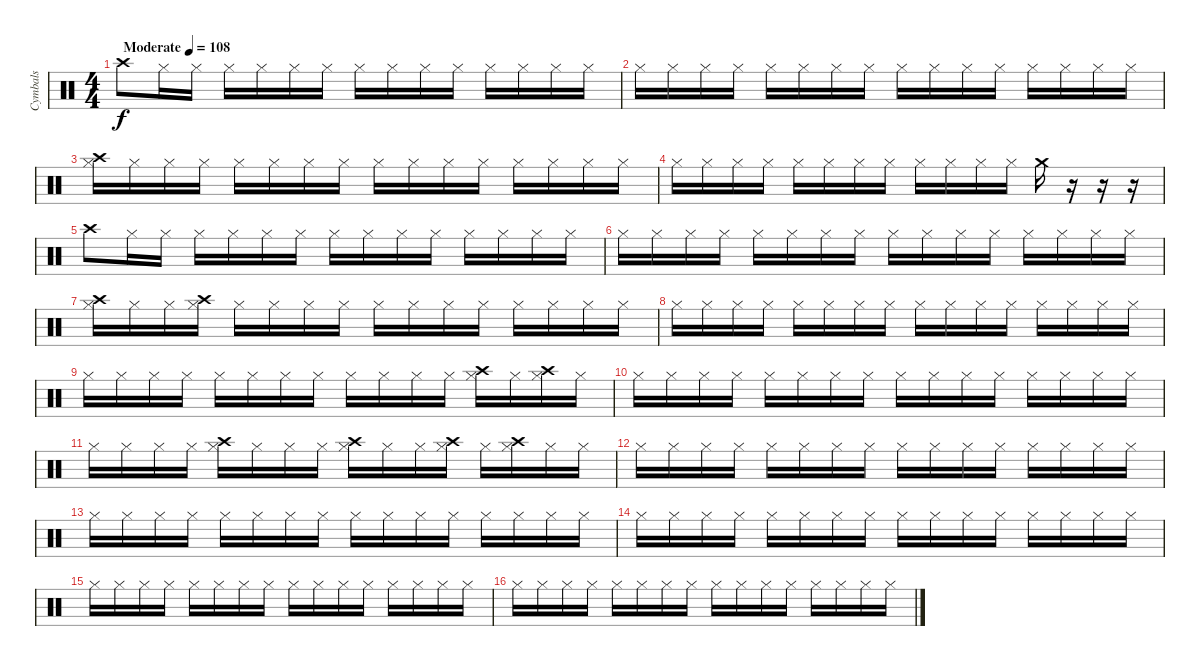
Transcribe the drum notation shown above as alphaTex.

\track ("Cymbals" "Cymbals") {instrument percussion}
\staff {score}
\articulation defaults
\ts (4 4)
\tempo (108 "Moderate")
\clef neutral
\ks c "Crash high (hit)".8{dy f} "Hi-Hat (closed)".16 "Hi-Hat (closed)".16 "Hi-Hat (closed)".16 "Hi-Hat (closed)".16 "Hi-Hat (closed)".16 "Hi-Hat (closed)".16 "Hi-Hat (closed)".16 "Hi-Hat (closed)".16 "Hi-Hat (closed)".16 "Hi-Hat (closed)".16 "Hi-Hat (closed)".16 "Hi-Hat (closed)".16 "Hi-Hat (closed)".16 "Hi-Hat (closed)".16
|
"Hi-Hat (closed)".16 "Hi-Hat (closed)".16 "Hi-Hat (closed)".16 "Hi-Hat (closed)".16 "Hi-Hat (closed)".16 "Hi-Hat (closed)".16 "Hi-Hat (closed)".16 "Hi-Hat (closed)".16 "Hi-Hat (closed)".16 "Hi-Hat (closed)".16 "Hi-Hat (closed)".16 "Hi-Hat (closed)".16 "Hi-Hat (closed)".16 "Hi-Hat (closed)".16 "Hi-Hat (closed)".16 "Hi-Hat (closed)".16 |
("Crash high (hit)" "Hi-Hat (closed)").16 "Hi-Hat (closed)".16 "Hi-Hat (closed)".16 "Hi-Hat (closed)".16 "Hi-Hat (closed)".16 "Hi-Hat (closed)".16 "Hi-Hat (closed)".16 "Hi-Hat (closed)".16 "Hi-Hat (closed)".16 "Hi-Hat (closed)".16 "Hi-Hat (closed)".16 "Hi-Hat (closed)".16 "Hi-Hat (closed)".16 "Hi-Hat (closed)".16 "Hi-Hat (closed)".16 "Hi-Hat (closed)".16 |
"Hi-Hat (closed)".16 "Hi-Hat (closed)".16 "Hi-Hat (closed)".16 "Hi-Hat (closed)".16 "Hi-Hat (closed)".16 "Hi-Hat (closed)".16 "Hi-Hat (closed)".16 "Hi-Hat (closed)".16 "Hi-Hat (closed)".16 "Hi-Hat (closed)".16 "Hi-Hat (closed)".16 "Hi-Hat (closed)".16 "Crash medium (hit)".16 r.16 r.16 r.16 |
"Crash high (hit)".8 "Hi-Hat (closed)".16 "Hi-Hat (closed)".16 "Hi-Hat (closed)".16 "Hi-Hat (closed)".16 "Hi-Hat (closed)".16 "Hi-Hat (closed)".16 "Hi-Hat (closed)".16 "Hi-Hat (closed)".16 "Hi-Hat (closed)".16 "Hi-Hat (closed)".16 "Hi-Hat (closed)".16 "Hi-Hat (closed)".16 "Hi-Hat (closed)".16 "Hi-Hat (closed)".16 |
"Hi-Hat (closed)".16 "Hi-Hat (closed)".16 "Hi-Hat (closed)".16 "Hi-Hat (closed)".16 "Hi-Hat (closed)".16 "Hi-Hat (closed)".16 "Hi-Hat (closed)".16 "Hi-Hat (closed)".16 "Hi-Hat (closed)".16 "Hi-Hat (closed)".16 "Hi-Hat (closed)".16 "Hi-Hat (closed)".16 "Hi-Hat (closed)".16 "Hi-Hat (closed)".16 "Hi-Hat (closed)".16 "Hi-Hat (closed)".16 |
("Crash high (hit)" "Hi-Hat (closed)").16 "Hi-Hat (closed)".16 "Hi-Hat (closed)".16 ("Crash high (hit)" "Hi-Hat (closed)").16 "Hi-Hat (closed)".16 "Hi-Hat (closed)".16 "Hi-Hat (closed)".16 "Hi-Hat (closed)".16 "Hi-Hat (closed)".16 "Hi-Hat (closed)".16 "Hi-Hat (closed)".16 "Hi-Hat (closed)".16 "Hi-Hat (closed)".16 "Hi-Hat (closed)".16 "Hi-Hat (closed)".16 "Hi-Hat (closed)".16 |
"Hi-Hat (closed)".16 "Hi-Hat (closed)".16 "Hi-Hat (closed)".16 "Hi-Hat (closed)".16 "Hi-Hat (closed)".16 "Hi-Hat (closed)".16 "Hi-Hat (closed)".16 "Hi-Hat (closed)".16 "Hi-Hat (closed)".16 "Hi-Hat (closed)".16 "Hi-Hat (closed)".16 "Hi-Hat (closed)".16 "Hi-Hat (closed)".16 "Hi-Hat (closed)".16 "Hi-Hat (closed)".16 "Hi-Hat (closed)".16 |
"Hi-Hat (closed)".16 "Hi-Hat (closed)".16 "Hi-Hat (closed)".16 "Hi-Hat (closed)".16 "Hi-Hat (closed)".16 "Hi-Hat (closed)".16 "Hi-Hat (closed)".16 "Hi-Hat (closed)".16 "Hi-Hat (closed)".16 "Hi-Hat (closed)".16 "Hi-Hat (closed)".16 "Hi-Hat (closed)".16 ("Crash high (hit)" "Hi-Hat (closed)").16 "Hi-Hat (closed)".16 ("Crash high (hit)" "Hi-Hat (closed)").16 "Hi-Hat (closed)".16 |
"Hi-Hat (closed)".16 "Hi-Hat (closed)".16 "Hi-Hat (closed)".16 "Hi-Hat (closed)".16 "Hi-Hat (closed)".16 "Hi-Hat (closed)".16 "Hi-Hat (closed)".16 "Hi-Hat (closed)".16 "Hi-Hat (closed)".16 "Hi-Hat (closed)".16 "Hi-Hat (closed)".16 "Hi-Hat (closed)".16 "Hi-Hat (closed)".16 "Hi-Hat (closed)".16 "Hi-Hat (closed)".16 "Hi-Hat (closed)".16 |
"Hi-Hat (closed)".16 "Hi-Hat (closed)".16 "Hi-Hat (closed)".16 "Hi-Hat (closed)".16 ("Crash high (hit)" "Hi-Hat (closed)").16 "Hi-Hat (closed)".16 "Hi-Hat (closed)".16 "Hi-Hat (closed)".16 ("Crash high (hit)" "Hi-Hat (closed)").16 "Hi-Hat (closed)".16 "Hi-Hat (closed)".16 ("Crash high (hit)" "Hi-Hat (closed)").16 "Hi-Hat (closed)".16 ("Crash high (hit)" "Hi-Hat (closed)").16 "Hi-Hat (closed)".16 "Hi-Hat (closed)".16 |
"Hi-Hat (closed)".16 "Hi-Hat (closed)".16 "Hi-Hat (closed)".16 "Hi-Hat (closed)".16 "Hi-Hat (closed)".16 "Hi-Hat (closed)".16 "Hi-Hat (closed)".16 "Hi-Hat (closed)".16 "Hi-Hat (closed)".16 "Hi-Hat (closed)".16 "Hi-Hat (closed)".16 "Hi-Hat (closed)".16 "Hi-Hat (closed)".16 "Hi-Hat (closed)".16 "Hi-Hat (closed)".16 "Hi-Hat (closed)".16 |
"Hi-Hat (closed)".16 "Hi-Hat (closed)".16 "Hi-Hat (closed)".16 "Hi-Hat (closed)".16 "Hi-Hat (closed)".16 "Hi-Hat (closed)".16 "Hi-Hat (closed)".16 "Hi-Hat (closed)".16 "Hi-Hat (closed)".16 "Hi-Hat (closed)".16 "Hi-Hat (closed)".16 "Hi-Hat (closed)".16 "Hi-Hat (closed)".16 "Hi-Hat (closed)".16 "Hi-Hat (closed)".16 "Hi-Hat (closed)".16 |
"Hi-Hat (closed)".16 "Hi-Hat (closed)".16 "Hi-Hat (closed)".16 "Hi-Hat (closed)".16 "Hi-Hat (closed)".16 "Hi-Hat (closed)".16 "Hi-Hat (closed)".16 "Hi-Hat (closed)".16 "Hi-Hat (closed)".16 "Hi-Hat (closed)".16 "Hi-Hat (closed)".16 "Hi-Hat (closed)".16 "Hi-Hat (closed)".16 "Hi-Hat (closed)".16 "Hi-Hat (closed)".16 "Hi-Hat (closed)".16 |
"Hi-Hat (closed)".16 "Hi-Hat (closed)".16 "Hi-Hat (closed)".16 "Hi-Hat (closed)".16 "Hi-Hat (closed)".16 "Hi-Hat (closed)".16 "Hi-Hat (closed)".16 "Hi-Hat (closed)".16 "Hi-Hat (closed)".16 "Hi-Hat (closed)".16 "Hi-Hat (closed)".16 "Hi-Hat (closed)".16 "Hi-Hat (closed)".16 "Hi-Hat (closed)".16 "Hi-Hat (closed)".16 "Hi-Hat (closed)".16 |
"Hi-Hat (closed)".16 "Hi-Hat (closed)".16 "Hi-Hat (closed)".16 "Hi-Hat (closed)".16 "Hi-Hat (closed)".16 "Hi-Hat (closed)".16 "Hi-Hat (closed)".16 "Hi-Hat (closed)".16 "Hi-Hat (closed)".16 "Hi-Hat (closed)".16 "Hi-Hat (closed)".16 "Hi-Hat (closed)".16 "Hi-Hat (closed)".16 "Hi-Hat (closed)".16 "Hi-Hat (closed)".16 "Hi-Hat (closed)".16
